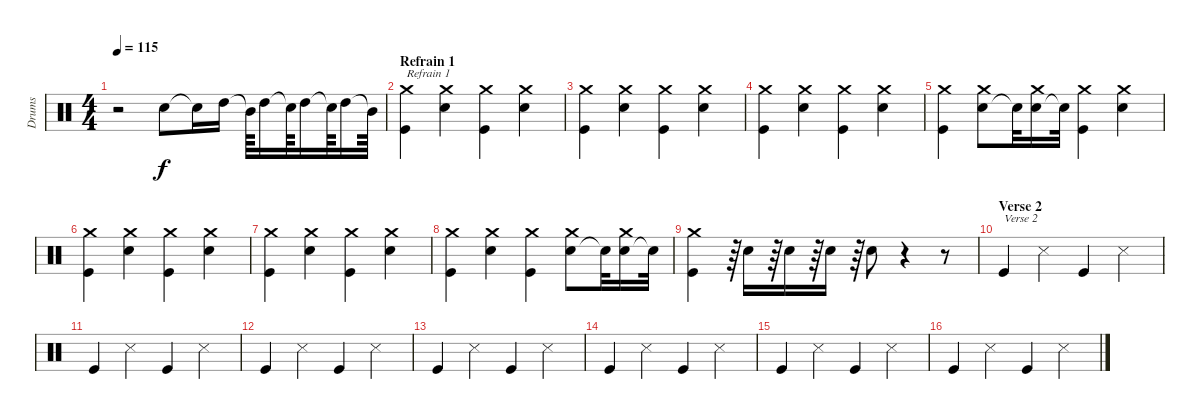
\track ("Drums" "Drums") {instrument percussion}
\staff {score}
\articulation defaults
\ts (4 4)
\tempo 115
\clef neutral
\ks c
r.2{dy f} "Snare (hit) 2".8 "Snare (hit)"{t}.16 "High Tom (hit)".16 "Mid Tom (hit)"{t}.64 "High Tom (hit)".16 "Snare (hit)"{t}.64 "High Tom (hit)".16 "Snare (hit)"{t}.64 "High Tom (hit)".16 "Mid Tom (hit)"{t}.64 |
\section ("" "Refrain 1")
("Kick (hit)" "Crash medium (hit)").4{txt "Refrain 1"} ("Snare (hit) 2" "Crash medium (hit)").4 ("Kick (hit)" "Crash medium (hit)").4 ("Snare (hit) 2" "Crash medium (hit)").4 |
("Kick (hit)" "Crash medium (hit)").4 ("Snare (hit) 2" "Crash medium (hit)").4 ("Kick (hit)" "Crash medium (hit)").4 ("Snare (hit) 2" "Crash medium (hit)").4 |
("Kick (hit)" "Crash medium (hit)").4 ("Snare (hit) 2" "Crash medium (hit)").4 ("Kick (hit)" "Crash medium (hit)").4 ("Snare (hit) 2" "Crash medium (hit)").4 |
("Kick (hit)" "Crash medium (hit)").4 ("Snare (hit) 2" "Crash medium (hit)").8 "Snare (hit)"{t}.32 ("Snare (hit) 2" "Crash medium (hit)").16 "Snare (hit)"{t}.32 ("Kick (hit)" "Crash medium (hit)").4 ("Snare (hit) 2" "Crash medium (hit)").4 |
("Kick (hit)" "Crash medium (hit)").4 ("Snare (hit) 2" "Crash medium (hit)").4 ("Kick (hit)" "Crash medium (hit)").4 ("Snare (hit) 2" "Crash medium (hit)").4 |
("Kick (hit)" "Crash medium (hit)").4 ("Snare (hit) 2" "Crash medium (hit)").4 ("Kick (hit)" "Crash medium (hit)").4 ("Snare (hit) 2" "Crash medium (hit)").4 |
("Kick (hit)" "Crash medium (hit)").4 ("Snare (hit) 2" "Crash medium (hit)").4 ("Kick (hit)" "Crash medium (hit)").4 ("Snare (hit) 2" "Crash medium (hit)").8 "Snare (hit)"{t}.32 ("Snare (hit) 2" "Crash medium (hit)").16 "Snare (hit) 2"{t}.32 |
("Kick (hit)" "Crash medium (hit)").4 r.64 "Snare (hit) 2".16 r.64 "Snare (hit) 2".16 r.64 "Snare (hit) 2".16 r.64 "Snare (hit) 2".8 r.4 r.8 |
\section ("" "Verse 2")
"Kick (hit)".4{txt "Verse 2"} "Snare (side stick) 3".4 "Kick (hit)".4 "Snare (side stick) 3".4 |
"Kick (hit)".4 "Snare (side stick) 3".4 "Kick (hit)".4 "Snare (side stick) 3".4 |
"Kick (hit)".4 "Snare (side stick) 3".4 "Kick (hit)".4 "Snare (side stick) 3".4 |
"Kick (hit)".4 "Snare (side stick) 3".4 "Kick (hit)".4 "Snare (side stick) 3".4 |
"Kick (hit)".4 "Snare (side stick) 3".4 "Kick (hit)".4 "Snare (side stick) 3".4 |
"Kick (hit)".4 "Snare (side stick) 3".4 "Kick (hit)".4 "Snare (side stick) 3".4 |
"Kick (hit)".4 "Snare (side stick) 3".4 "Kick (hit)".4 "Snare (side stick) 3".4
